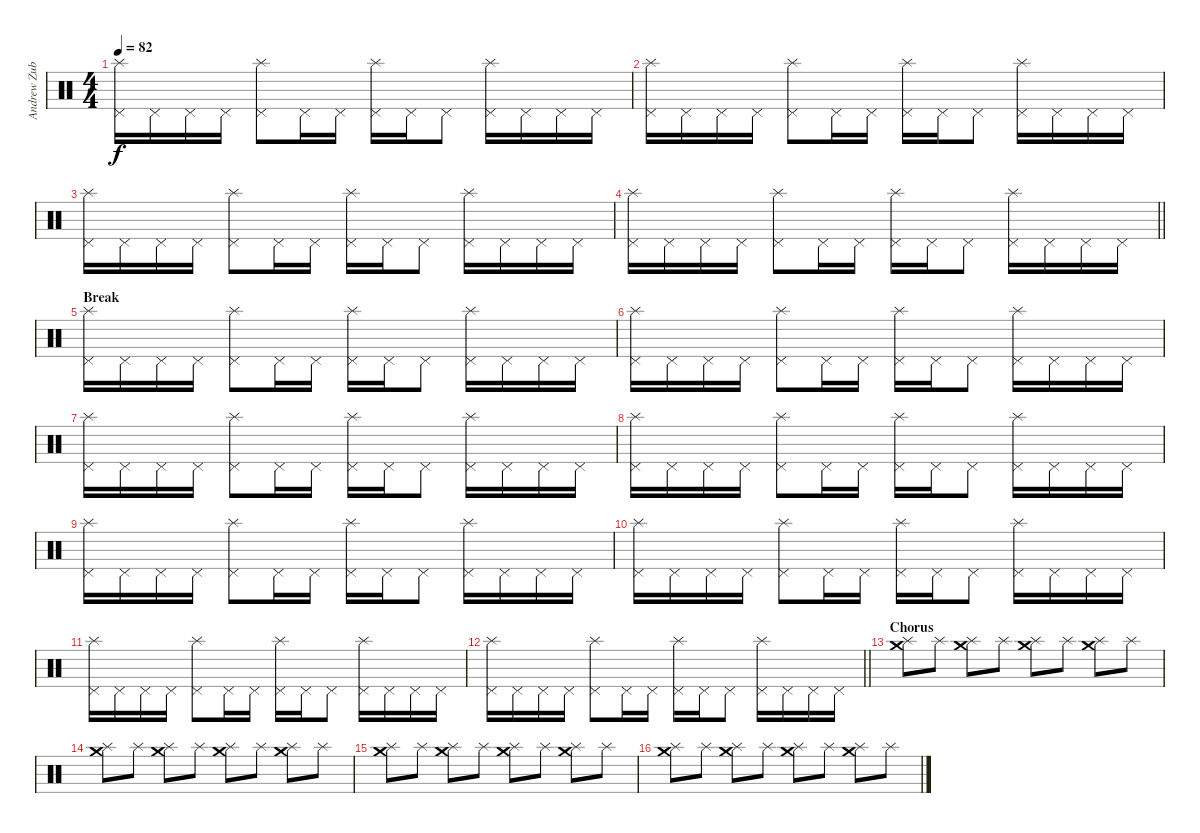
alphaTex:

\track ("Andrew Zubiszewski (Drums)" "Andrew Zub") {instrument percussion}
\staff {score}
\articulation defaults
\ts (4 4)
\tempo 82
\clef neutral
\ks c
("Splash (hit)" "Pedal Hi-Hat (hit)").16{dy f} "Pedal Hi-Hat (hit)".16 "Pedal Hi-Hat (hit)".16 "Pedal Hi-Hat (hit)".16 ("Splash (hit)" "Pedal Hi-Hat (hit)").8 "Pedal Hi-Hat (hit)".16 "Pedal Hi-Hat (hit)".16 ("Splash (hit)" "Pedal Hi-Hat (hit)").16 "Pedal Hi-Hat (hit)".16 "Pedal Hi-Hat (hit)".8 ("Splash (hit)" "Pedal Hi-Hat (hit)").16 "Pedal Hi-Hat (hit)".16 "Pedal Hi-Hat (hit)".16 "Pedal Hi-Hat (hit)".16 |
("Splash (hit)" "Pedal Hi-Hat (hit)").16 "Pedal Hi-Hat (hit)".16 "Pedal Hi-Hat (hit)".16 "Pedal Hi-Hat (hit)".16 ("Splash (hit)" "Pedal Hi-Hat (hit)").8 "Pedal Hi-Hat (hit)".16 "Pedal Hi-Hat (hit)".16 ("Splash (hit)" "Pedal Hi-Hat (hit)").16 "Pedal Hi-Hat (hit)".16 "Pedal Hi-Hat (hit)".8 ("Splash (hit)" "Pedal Hi-Hat (hit)").16 "Pedal Hi-Hat (hit)".16 "Pedal Hi-Hat (hit)".16 "Pedal Hi-Hat (hit)".16 |
("Splash (hit)" "Pedal Hi-Hat (hit)").16 "Pedal Hi-Hat (hit)".16 "Pedal Hi-Hat (hit)".16 "Pedal Hi-Hat (hit)".16 ("Splash (hit)" "Pedal Hi-Hat (hit)").8 "Pedal Hi-Hat (hit)".16 "Pedal Hi-Hat (hit)".16 ("Splash (hit)" "Pedal Hi-Hat (hit)").16 "Pedal Hi-Hat (hit)".16 "Pedal Hi-Hat (hit)".8 ("Splash (hit)" "Pedal Hi-Hat (hit)").16 "Pedal Hi-Hat (hit)".16 "Pedal Hi-Hat (hit)".16 "Pedal Hi-Hat (hit)".16 |
\barLineRight lightlight
("Splash (hit)" "Pedal Hi-Hat (hit)").16 "Pedal Hi-Hat (hit)".16 "Pedal Hi-Hat (hit)".16 "Pedal Hi-Hat (hit)".16 ("Splash (hit)" "Pedal Hi-Hat (hit)").8 "Pedal Hi-Hat (hit)".16 "Pedal Hi-Hat (hit)".16 ("Splash (hit)" "Pedal Hi-Hat (hit)").16 "Pedal Hi-Hat (hit)".16 "Pedal Hi-Hat (hit)".8 ("Splash (hit)" "Pedal Hi-Hat (hit)").16 "Pedal Hi-Hat (hit)".16 "Pedal Hi-Hat (hit)".16 "Pedal Hi-Hat (hit)".16 |
\section ("" "Break")
("Splash (hit)" "Pedal Hi-Hat (hit)").16 "Pedal Hi-Hat (hit)".16 "Pedal Hi-Hat (hit)".16 "Pedal Hi-Hat (hit)".16 ("Splash (hit)" "Pedal Hi-Hat (hit)").8 "Pedal Hi-Hat (hit)".16 "Pedal Hi-Hat (hit)".16 ("Splash (hit)" "Pedal Hi-Hat (hit)").16 "Pedal Hi-Hat (hit)".16 "Pedal Hi-Hat (hit)".8 ("Splash (hit)" "Pedal Hi-Hat (hit)").16 "Pedal Hi-Hat (hit)".16 "Pedal Hi-Hat (hit)".16 "Pedal Hi-Hat (hit)".16 |
("Splash (hit)" "Pedal Hi-Hat (hit)").16 "Pedal Hi-Hat (hit)".16 "Pedal Hi-Hat (hit)".16 "Pedal Hi-Hat (hit)".16 ("Splash (hit)" "Pedal Hi-Hat (hit)").8 "Pedal Hi-Hat (hit)".16 "Pedal Hi-Hat (hit)".16 ("Splash (hit)" "Pedal Hi-Hat (hit)").16 "Pedal Hi-Hat (hit)".16 "Pedal Hi-Hat (hit)".8 ("Splash (hit)" "Pedal Hi-Hat (hit)").16 "Pedal Hi-Hat (hit)".16 "Pedal Hi-Hat (hit)".16 "Pedal Hi-Hat (hit)".16 |
("Splash (hit)" "Pedal Hi-Hat (hit)").16 "Pedal Hi-Hat (hit)".16 "Pedal Hi-Hat (hit)".16 "Pedal Hi-Hat (hit)".16 ("Splash (hit)" "Pedal Hi-Hat (hit)").8 "Pedal Hi-Hat (hit)".16 "Pedal Hi-Hat (hit)".16 ("Splash (hit)" "Pedal Hi-Hat (hit)").16 "Pedal Hi-Hat (hit)".16 "Pedal Hi-Hat (hit)".8 ("Splash (hit)" "Pedal Hi-Hat (hit)").16 "Pedal Hi-Hat (hit)".16 "Pedal Hi-Hat (hit)".16 "Pedal Hi-Hat (hit)".16 |
("Splash (hit)" "Pedal Hi-Hat (hit)").16 "Pedal Hi-Hat (hit)".16 "Pedal Hi-Hat (hit)".16 "Pedal Hi-Hat (hit)".16 ("Splash (hit)" "Pedal Hi-Hat (hit)").8 "Pedal Hi-Hat (hit)".16 "Pedal Hi-Hat (hit)".16 ("Splash (hit)" "Pedal Hi-Hat (hit)").16 "Pedal Hi-Hat (hit)".16 "Pedal Hi-Hat (hit)".8 ("Splash (hit)" "Pedal Hi-Hat (hit)").16 "Pedal Hi-Hat (hit)".16 "Pedal Hi-Hat (hit)".16 "Pedal Hi-Hat (hit)".16 |
("Splash (hit)" "Pedal Hi-Hat (hit)").16 "Pedal Hi-Hat (hit)".16 "Pedal Hi-Hat (hit)".16 "Pedal Hi-Hat (hit)".16 ("Splash (hit)" "Pedal Hi-Hat (hit)").8 "Pedal Hi-Hat (hit)".16 "Pedal Hi-Hat (hit)".16 ("Splash (hit)" "Pedal Hi-Hat (hit)").16 "Pedal Hi-Hat (hit)".16 "Pedal Hi-Hat (hit)".8 ("Splash (hit)" "Pedal Hi-Hat (hit)").16 "Pedal Hi-Hat (hit)".16 "Pedal Hi-Hat (hit)".16 "Pedal Hi-Hat (hit)".16 |
("Splash (hit)" "Pedal Hi-Hat (hit)").16 "Pedal Hi-Hat (hit)".16 "Pedal Hi-Hat (hit)".16 "Pedal Hi-Hat (hit)".16 ("Splash (hit)" "Pedal Hi-Hat (hit)").8 "Pedal Hi-Hat (hit)".16 "Pedal Hi-Hat (hit)".16 ("Splash (hit)" "Pedal Hi-Hat (hit)").16 "Pedal Hi-Hat (hit)".16 "Pedal Hi-Hat (hit)".8 ("Splash (hit)" "Pedal Hi-Hat (hit)").16 "Pedal Hi-Hat (hit)".16 "Pedal Hi-Hat (hit)".16 "Pedal Hi-Hat (hit)".16 |
("Splash (hit)" "Pedal Hi-Hat (hit)").16 "Pedal Hi-Hat (hit)".16 "Pedal Hi-Hat (hit)".16 "Pedal Hi-Hat (hit)".16 ("Splash (hit)" "Pedal Hi-Hat (hit)").8 "Pedal Hi-Hat (hit)".16 "Pedal Hi-Hat (hit)".16 ("Splash (hit)" "Pedal Hi-Hat (hit)").16 "Pedal Hi-Hat (hit)".16 "Pedal Hi-Hat (hit)".8 ("Splash (hit)" "Pedal Hi-Hat (hit)").16 "Pedal Hi-Hat (hit)".16 "Pedal Hi-Hat (hit)".16 "Pedal Hi-Hat (hit)".16 |
\barLineRight lightlight
("Splash (hit)" "Pedal Hi-Hat (hit)").16 "Pedal Hi-Hat (hit)".16 "Pedal Hi-Hat (hit)".16 "Pedal Hi-Hat (hit)".16 ("Splash (hit)" "Pedal Hi-Hat (hit)").8 "Pedal Hi-Hat (hit)".16 "Pedal Hi-Hat (hit)".16 ("Splash (hit)" "Pedal Hi-Hat (hit)").16 "Pedal Hi-Hat (hit)".16 "Pedal Hi-Hat (hit)".8 ("Splash (hit)" "Pedal Hi-Hat (hit)").16 "Pedal Hi-Hat (hit)".16 "Pedal Hi-Hat (hit)".16 "Pedal Hi-Hat (hit)".16 |
\section ("" "Chorus")
("Crash medium (hit)" "Splash (hit)").8 "Splash (hit)".8 ("Crash medium (hit)" "Splash (hit)").8 "Splash (hit)".8 ("Crash medium (hit)" "Splash (hit)").8 "Splash (hit)".8 ("Crash medium (hit)" "Splash (hit)").8 "Splash (hit)".8 |
("Crash medium (hit)" "Splash (hit)").8 "Splash (hit)".8 ("Crash medium (hit)" "Splash (hit)").8 "Splash (hit)".8 ("Crash medium (hit)" "Splash (hit)").8 "Splash (hit)".8 ("Crash medium (hit)" "Splash (hit)").8 "Splash (hit)".8 |
("Crash medium (hit)" "Splash (hit)").8 "Splash (hit)".8 ("Crash medium (hit)" "Splash (hit)").8 "Splash (hit)".8 ("Crash medium (hit)" "Splash (hit)").8 "Splash (hit)".8 ("Crash medium (hit)" "Splash (hit)").8 "Splash (hit)".8 |
("Crash medium (hit)" "Splash (hit)").8 "Splash (hit)".8 ("Crash medium (hit)" "Splash (hit)").8 "Splash (hit)".8 ("Crash medium (hit)" "Splash (hit)").8 "Splash (hit)".8 ("Crash medium (hit)" "Splash (hit)").8 "Splash (hit)".8
